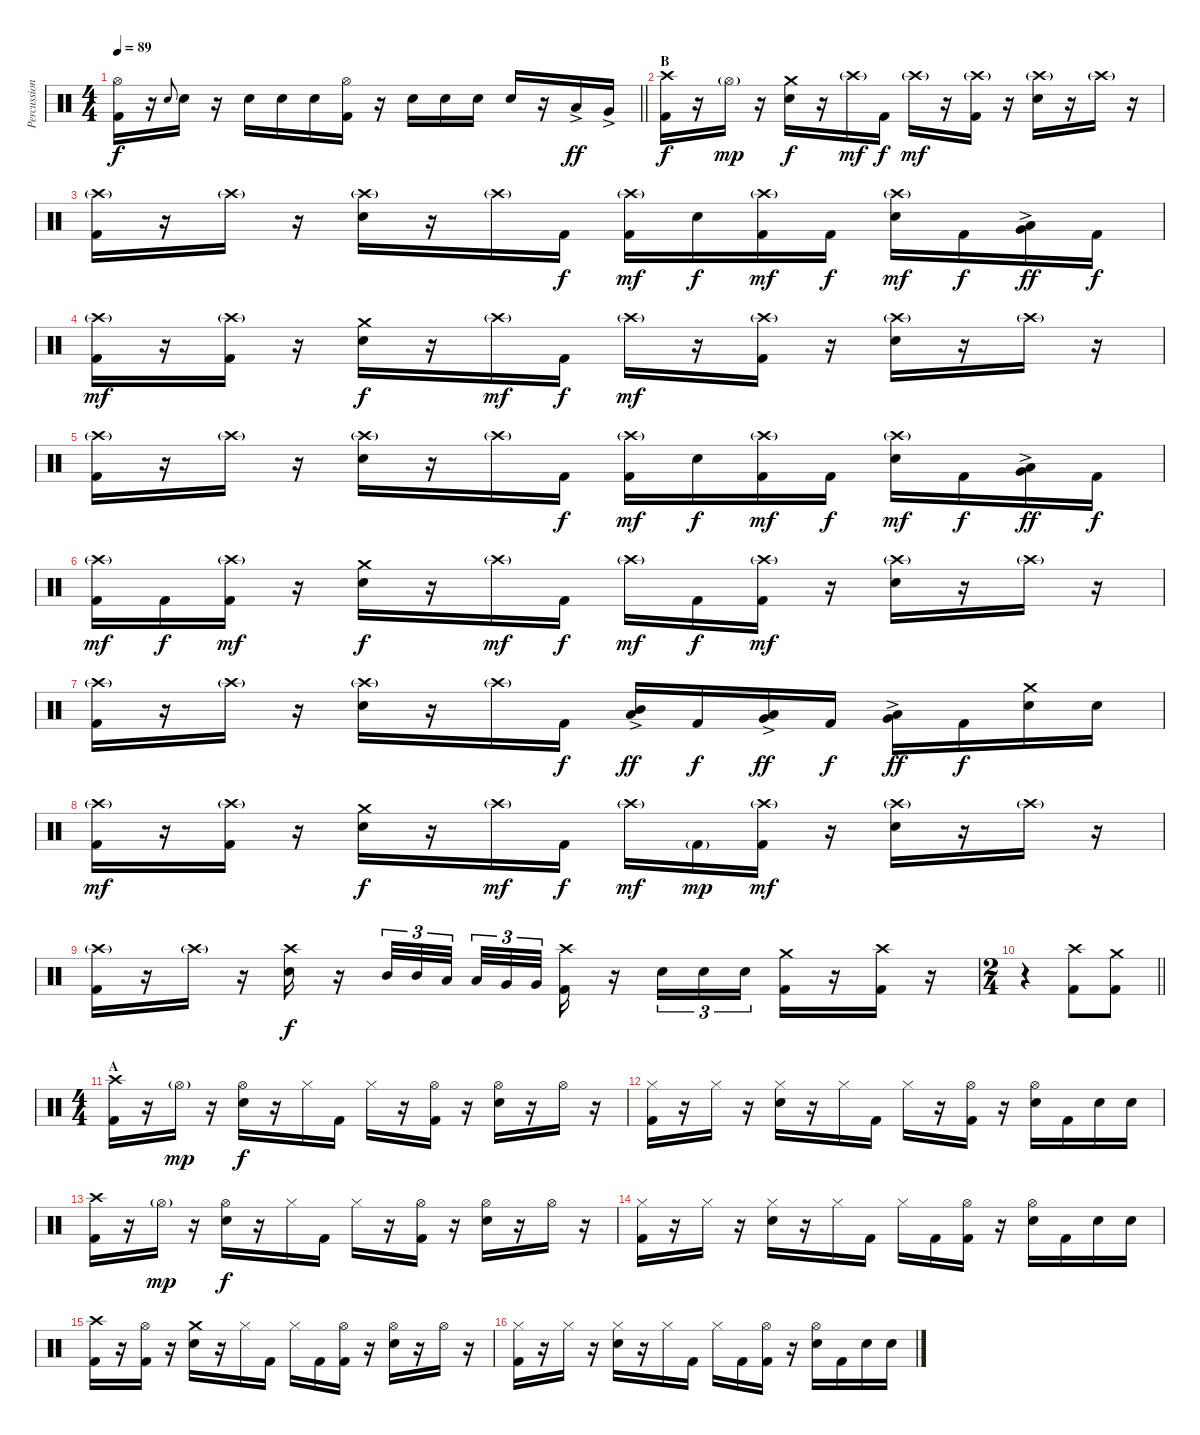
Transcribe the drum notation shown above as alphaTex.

\track ("Percussion" "Percussion") {instrument percussion}
\staff {score}
\articulation defaults
\ts (4 4)
\tempo 89
\clef neutral
\barLineRight lightlight
\ks c
("Hi-Hat (open)" "Kick (hit) 2").16{dy f} r.16 "Electric Snare (hit)".8{gr onbeat} "Electric Snare (hit)".16 r.16 "Electric Snare (hit)".16 "Electric Snare (hit)".16 "Electric Snare (hit)".16 ("Hi-Hat (open)" "Kick (hit) 2").16 r.16 "Electric Snare (hit)".16 "Electric Snare (hit)".16 "Electric Snare (hit)".16 "Electric Snare (hit)".16 r.16 "Low Tom (hit)"{ac}.16{dy ff} "Very Low Tom (hit)"{ac}.16 |
\section ("" "B")
("Crash high (hit)" "Kick (hit) 2").16{dy f} r.16 "Hi-Hat (open)"{g}.16{dy mp} r.16 ("Crash medium (hit)" "Electric Snare (hit)").16{dy f} r.16 "Crash high (hit)"{g}.16{dy mf} "Kick (hit) 2".16{dy f} "Crash high (hit)"{g}.16{dy mf} r.16 ("Crash high (hit)"{g} "Kick (hit) 2").16 r.16 ("Crash high (hit)"{g} "Electric Snare (hit)").16 r.16 "Crash high (hit)"{g}.16 r.16 |
("Crash high (hit)"{g} "Kick (hit) 2").16 r.16 "Crash high (hit)"{g}.16 r.16 ("Crash high (hit)"{g} "Electric Snare (hit)").16 r.16 "Crash high (hit)"{g}.16 "Kick (hit) 2".16{dy f} ("Crash high (hit)"{g} "Kick (hit) 2").16{dy mf} "Electric Snare (hit)".16{dy f} ("Crash high (hit)"{g} "Kick (hit) 2").16{dy mf} "Kick (hit) 2".16{dy f} ("Crash high (hit)"{g} "Electric Snare (hit)").16{dy mf} "Kick (hit) 2".16{dy f} ("Very Low Tom (hit)"{ac} "Low Floor Tom (hit)"{ac}).16{dy ff} "Kick (hit) 2".16{dy f} |
("Crash high (hit)"{g} "Kick (hit) 2").16{dy mf} r.16 ("Crash high (hit)"{g} "Kick (hit) 2").16 r.16 ("Crash medium (hit)" "Electric Snare (hit)").16{dy f} r.16 "Crash high (hit)"{g}.16{dy mf} "Kick (hit) 2".16{dy f} "Crash high (hit)"{g}.16{dy mf} r.16 ("Crash high (hit)"{g} "Kick (hit) 2").16 r.16 ("Crash high (hit)"{g} "Electric Snare (hit)").16 r.16 "Crash high (hit)"{g}.16 r.16 |
("Crash high (hit)"{g} "Kick (hit) 2").16 r.16 "Crash high (hit)"{g}.16 r.16 ("Crash high (hit)"{g} "Electric Snare (hit)").16 r.16 "Crash high (hit)"{g}.16 "Kick (hit) 2".16{dy f} ("Crash high (hit)"{g} "Kick (hit) 2").16{dy mf} "Electric Snare (hit)".16{dy f} ("Crash high (hit)"{g} "Kick (hit) 2").16{dy mf} "Kick (hit) 2".16{dy f} ("Crash high (hit)"{g} "Electric Snare (hit)").16{dy mf} "Kick (hit) 2".16{dy f} ("Very Low Tom (hit)"{ac} "Low Floor Tom (hit)"{ac}).16{dy ff} "Kick (hit) 2".16{dy f} |
("Crash high (hit)"{g} "Kick (hit) 2").16{dy mf} "Kick (hit) 2".16{dy f} ("Crash high (hit)"{g} "Kick (hit) 2").16{dy mf} r.16 ("Crash medium (hit)" "Electric Snare (hit)").16{dy f} r.16 "Crash high (hit)"{g}.16{dy mf} "Kick (hit) 2".16{dy f} "Crash high (hit)"{g}.16{dy mf} "Kick (hit) 2".16{dy f} ("Crash high (hit)"{g} "Kick (hit) 2").16{dy mf} r.16 ("Crash high (hit)"{g} "Electric Snare (hit)").16 r.16 "Crash high (hit)"{g}.16 r.16 |
("Crash high (hit)"{g} "Kick (hit) 2").16 r.16 "Crash high (hit)"{g}.16 r.16 ("Crash high (hit)"{g} "Electric Snare (hit)").16 r.16 "Crash high (hit)"{g}.16 "Kick (hit) 2".16{dy f} ("Mid Tom (hit)"{ac} "Low Tom (hit)"{ac}).16{dy ff} "Kick (hit) 2".16{dy f} ("Low Tom (hit)"{ac} "Very Low Tom (hit)"{ac}).16{dy ff} "Kick (hit) 2".16{dy f} ("Very Low Tom (hit)"{ac} "Low Floor Tom (hit)"{ac}).16{dy ff} "Kick (hit) 2".16{dy f} ("Crash medium (hit)" "Electric Snare (hit)").16 "Electric Snare (hit)".16 |
("Crash high (hit)"{g} "Kick (hit) 2").16{dy mf} r.16 ("Crash high (hit)"{g} "Kick (hit) 2").16 r.16 ("Crash medium (hit)" "Electric Snare (hit)").16{dy f} r.16 "Crash high (hit)"{g}.16{dy mf} "Kick (hit) 2".16{dy f} "Crash high (hit)"{g}.16{dy mf} "Kick (hit) 2"{g}.16{dy mp} ("Crash high (hit)"{g} "Kick (hit) 2").16{dy mf} r.16 ("Crash high (hit)"{g} "Electric Snare (hit)").16 r.16 "Crash high (hit)"{g}.16 r.16 |
("Crash high (hit)"{g} "Kick (hit) 2").16 r.16 "Crash high (hit)"{g}.16 r.16 ("Crash high (hit)" "Electric Snare (hit)").16{dy f} r.16 "Mid Tom (hit)".32{tu (3 2)} "Mid Tom (hit)".32{tu (3 2)} "Low Tom (hit)".32{tu (3 2) beam splitsecondary} "Low Tom (hit)".32{tu (3 2)} "Very Low Tom (hit)".32{tu (3 2)} "Very Low Tom (hit)".32{tu (3 2)} ("Crash high (hit)" "Kick (hit) 2").16 r.16 "Electric Snare (hit)".16{tu (3 2)} "Electric Snare (hit)".16{tu (3 2)} "Electric Snare (hit)".16{tu (3 2)} ("Crash medium (hit)" "Kick (hit) 2").16 r.16 ("Crash high (hit)" "Kick (hit) 2").16 r.16 |
\ts (2 4)
\barLineRight lightlight
r.4 ("Crash high (hit)" "Kick (hit) 2").8 ("Crash medium (hit)" "Kick (hit) 2").8 |
\ts (4 4)
\section ("" "A")
("Crash high (hit)" "Kick (hit) 2").16 r.16 "Hi-Hat (open)"{g}.16{dy mp} r.16 ("Hi-Hat (open)" "Electric Snare (hit)").16{dy f} r.16 "Hi-Hat (closed)".16 "Kick (hit) 2".16 "Hi-Hat (closed)".16 r.16 ("Hi-Hat (open)" "Kick (hit) 2").16 r.16 ("Hi-Hat (open)" "Electric Snare (hit)").16 r.16 "Hi-Hat (open)".16 r.16 |
("Hi-Hat (closed)" "Kick (hit) 2").16 r.16 "Hi-Hat (closed)".16 r.16 ("Hi-Hat (closed)" "Electric Snare (hit)").16 r.16 "Hi-Hat (closed)".16 "Kick (hit) 2".16 "Hi-Hat (closed)".16 r.16 ("Hi-Hat (open)" "Kick (hit) 2").16 r.16 ("Hi-Hat (open)" "Electric Snare (hit)").16 "Kick (hit) 2".16 "Electric Snare (hit)".16 "Electric Snare (hit)".16 |
("Crash high (hit)" "Kick (hit) 2").16 r.16 "Hi-Hat (open)"{g}.16{dy mp} r.16 ("Hi-Hat (open)" "Electric Snare (hit)").16{dy f} r.16 "Hi-Hat (closed)".16 "Kick (hit) 2".16 "Hi-Hat (closed)".16 r.16 ("Hi-Hat (open)" "Kick (hit) 2").16 r.16 ("Hi-Hat (open)" "Electric Snare (hit)").16 r.16 "Hi-Hat (open)".16 r.16 |
("Hi-Hat (closed)" "Kick (hit) 2").16 r.16 "Hi-Hat (closed)".16 r.16 ("Hi-Hat (closed)" "Electric Snare (hit)").16 r.16 "Hi-Hat (closed)".16 "Kick (hit) 2".16 "Hi-Hat (closed)".16 "Kick (hit) 2".16 ("Hi-Hat (open)" "Kick (hit) 2").16 r.16 ("Hi-Hat (open)" "Electric Snare (hit)").16 "Kick (hit) 2".16 "Electric Snare (hit)".16 "Electric Snare (hit)".16 |
("Crash high (hit)" "Kick (hit) 2").16 r.16 ("Hi-Hat (open)" "Kick (hit) 2").16 r.16 ("Crash medium (hit)" "Electric Snare (hit)").16 r.16 "Hi-Hat (closed)".16 "Kick (hit) 2".16 "Hi-Hat (closed)".16 "Kick (hit) 2".16 ("Hi-Hat (open)" "Kick (hit) 2").16 r.16 ("Hi-Hat (open)" "Electric Snare (hit)").16 r.16 "Hi-Hat (open)".16 r.16 |
("Hi-Hat (closed)" "Kick (hit) 2").16 r.16 "Hi-Hat (closed)".16 r.16 ("Hi-Hat (closed)" "Electric Snare (hit)").16 r.16 "Hi-Hat (closed)".16 "Kick (hit) 2".16 "Hi-Hat (closed)".16 "Kick (hit) 2".16 ("Hi-Hat (open)" "Kick (hit) 2").16 r.16 ("Hi-Hat (open)" "Electric Snare (hit)").16 "Kick (hit) 2".16 "Electric Snare (hit)".16 "Electric Snare (hit)".16
